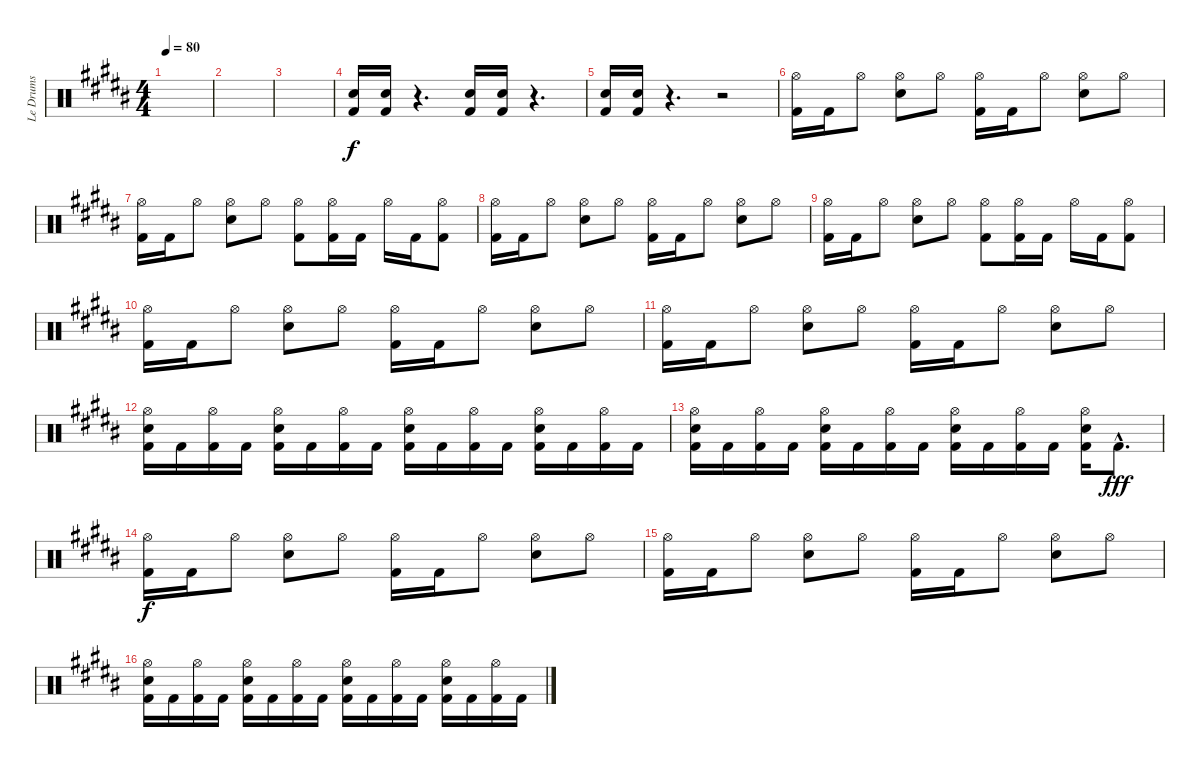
\track ("Le Drums" "Le Drums") {instrument percussion}
\staff {score}
\articulation defaults
\ts (4 4)
\tempo 80
\clef neutral
\ks b
|
|
|
("Snare (hit) 2" "Kick (hit) 2").16 ("Snare (hit) 2" "Kick (hit) 2").16 r.4{d} ("Snare (hit) 2" "Kick (hit) 2").16 ("Snare (hit) 2" "Kick (hit) 2").16 r.4{d} |
("Snare (hit) 2" "Kick (hit) 2").16 ("Snare (hit) 2" "Kick (hit) 2").16 r.4{d} r.2 |
("Hi-Hat (open)" "Kick (hit) 2").16 "Kick (hit) 2".16 "Hi-Hat (open)".8 ("Hi-Hat (open)" "Snare (hit) 2").8 "Hi-Hat (open)".8 ("Hi-Hat (open)" "Kick (hit) 2").16 "Kick (hit) 2".16 "Hi-Hat (open)".8 ("Hi-Hat (open)" "Snare (hit) 2").8 "Hi-Hat (open)".8 |
("Hi-Hat (open)" "Kick (hit) 2").16 "Kick (hit) 2".16 "Hi-Hat (open)".8 ("Hi-Hat (open)" "Snare (hit) 2").8 "Hi-Hat (open)".8 ("Hi-Hat (open)" "Kick (hit) 2").8 ("Hi-Hat (open)" "Kick (hit) 2").16 "Kick (hit) 2".16 "Hi-Hat (open)".16 "Kick (hit) 2".16 ("Hi-Hat (open)" "Kick (hit) 2").8 |
("Hi-Hat (open)" "Kick (hit) 2").16 "Kick (hit) 2".16 "Hi-Hat (open)".8 ("Hi-Hat (open)" "Snare (hit) 2").8 "Hi-Hat (open)".8 ("Hi-Hat (open)" "Kick (hit) 2").16 "Kick (hit) 2".16 "Hi-Hat (open)".8 ("Hi-Hat (open)" "Snare (hit) 2").8 "Hi-Hat (open)".8 |
("Hi-Hat (open)" "Kick (hit) 2").16 "Kick (hit) 2".16 "Hi-Hat (open)".8 ("Hi-Hat (open)" "Snare (hit) 2").8 "Hi-Hat (open)".8 ("Hi-Hat (open)" "Kick (hit) 2").8 ("Hi-Hat (open)" "Kick (hit) 2").16 "Kick (hit) 2".16 "Hi-Hat (open)".16 "Kick (hit) 2".16 ("Hi-Hat (open)" "Kick (hit) 2").8 |
("Hi-Hat (open)" "Kick (hit) 2").16 "Kick (hit) 2".16 "Hi-Hat (open)".8 ("Hi-Hat (open)" "Snare (hit) 2").8 "Hi-Hat (open)".8 ("Hi-Hat (open)" "Kick (hit) 2").16 "Kick (hit) 2".16 "Hi-Hat (open)".8 ("Hi-Hat (open)" "Snare (hit) 2").8 "Hi-Hat (open)".8 |
("Hi-Hat (open)" "Kick (hit) 2").16 "Kick (hit) 2".16 "Hi-Hat (open)".8 ("Hi-Hat (open)" "Snare (hit) 2").8 "Hi-Hat (open)".8 ("Hi-Hat (open)" "Kick (hit) 2").16 "Kick (hit) 2".16 "Hi-Hat (open)".8 ("Hi-Hat (open)" "Snare (hit) 2").8 "Hi-Hat (open)".8 |
("Hi-Hat (open)" "Snare (hit) 2" "Kick (hit) 2").16 "Kick (hit) 2".16 ("Hi-Hat (open)" "Kick (hit) 2").16 "Kick (hit) 2".16 ("Hi-Hat (open)" "Snare (hit) 2" "Kick (hit) 2").16 "Kick (hit) 2".16 ("Hi-Hat (open)" "Kick (hit) 2").16 "Kick (hit) 2".16 ("Hi-Hat (open)" "Snare (hit) 2" "Kick (hit) 2").16 "Kick (hit) 2".16 ("Hi-Hat (open)" "Kick (hit) 2").16 "Kick (hit) 2".16 ("Hi-Hat (open)" "Snare (hit) 2" "Kick (hit) 2").16 "Kick (hit) 2".16 ("Hi-Hat (open)" "Kick (hit) 2").16 "Kick (hit) 2".16 |
("Hi-Hat (open)" "Snare (hit) 2" "Kick (hit) 2").16 "Kick (hit) 2".16 ("Hi-Hat (open)" "Kick (hit) 2").16 "Kick (hit) 2".16 ("Hi-Hat (open)" "Snare (hit) 2" "Kick (hit) 2").16 "Kick (hit) 2".16 ("Hi-Hat (open)" "Kick (hit) 2").16 "Kick (hit) 2".16 ("Hi-Hat (open)" "Snare (hit) 2" "Kick (hit) 2").16 "Kick (hit) 2".16 ("Hi-Hat (open)" "Kick (hit) 2").16 "Kick (hit) 2".16 ("Hi-Hat (open)" "Snare (hit) 2" "Kick (hit) 2").16 "Kick (hit) 2"{hac}.8{d dy fff} |
("Hi-Hat (open)" "Kick (hit) 2").16{dy f} "Kick (hit) 2".16 "Hi-Hat (open)".8 ("Hi-Hat (open)" "Snare (hit) 2").8 "Hi-Hat (open)".8 ("Hi-Hat (open)" "Kick (hit) 2").16 "Kick (hit) 2".16 "Hi-Hat (open)".8 ("Hi-Hat (open)" "Snare (hit) 2").8 "Hi-Hat (open)".8 |
("Hi-Hat (open)" "Kick (hit) 2").16 "Kick (hit) 2".16 "Hi-Hat (open)".8 ("Hi-Hat (open)" "Snare (hit) 2").8 "Hi-Hat (open)".8 ("Hi-Hat (open)" "Kick (hit) 2").16 "Kick (hit) 2".16 "Hi-Hat (open)".8 ("Hi-Hat (open)" "Snare (hit) 2").8 "Hi-Hat (open)".8 |
("Hi-Hat (open)" "Snare (hit) 2" "Kick (hit) 2").16 "Kick (hit) 2".16 ("Hi-Hat (open)" "Kick (hit) 2").16 "Kick (hit) 2".16 ("Hi-Hat (open)" "Snare (hit) 2" "Kick (hit) 2").16 "Kick (hit) 2".16 ("Hi-Hat (open)" "Kick (hit) 2").16 "Kick (hit) 2".16 ("Hi-Hat (open)" "Snare (hit) 2" "Kick (hit) 2").16 "Kick (hit) 2".16 ("Hi-Hat (open)" "Kick (hit) 2").16 "Kick (hit) 2".16 ("Hi-Hat (open)" "Snare (hit) 2" "Kick (hit) 2").16 "Kick (hit) 2".16 ("Hi-Hat (open)" "Kick (hit) 2").16 "Kick (hit) 2".16
